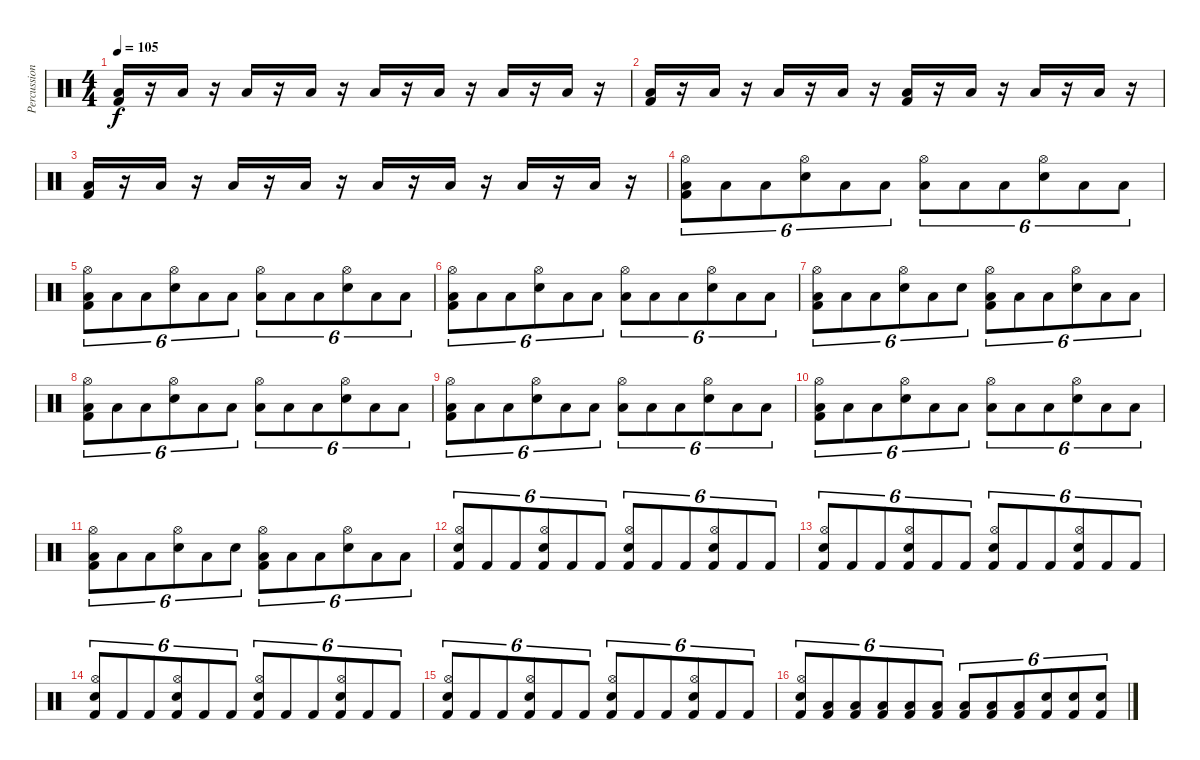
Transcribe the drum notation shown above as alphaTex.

\track ("Percussion" "Percussion") {instrument percussion}
\staff {score}
\articulation defaults
\ts (4 4)
\tempo 105
\clef neutral
\ks c
("Low Floor Tom (hit)" "Kick (hit) 2").16{dy f} r.16 "Low Floor Tom (hit)".16 r.16 "Low Floor Tom (hit)".16 r.16 "Low Floor Tom (hit)".16 r.16 "Low Floor Tom (hit)".16 r.16 "Low Floor Tom (hit)".16 r.16 "Low Floor Tom (hit)".16 r.16 "Low Floor Tom (hit)".16 r.16 |
("Low Floor Tom (hit)" "Kick (hit) 2").16 r.16 "Low Floor Tom (hit)".16 r.16 "Low Floor Tom (hit)".16 r.16 "Low Floor Tom (hit)".16 r.16 ("Low Floor Tom (hit)" "Kick (hit) 2").16 r.16 "Low Floor Tom (hit)".16 r.16 "Low Floor Tom (hit)".16 r.16 "Low Floor Tom (hit)".16 r.16 |
("Low Floor Tom (hit)" "Kick (hit) 2").16 r.16 "Low Floor Tom (hit)".16 r.16 "Low Floor Tom (hit)".16 r.16 "Low Floor Tom (hit)".16 r.16 "Low Floor Tom (hit)".16 r.16 "Low Floor Tom (hit)".16 r.16 "Low Floor Tom (hit)".16 r.16 "Low Floor Tom (hit)".16 r.16 |
("Hi-Hat (open)" "Low Floor Tom (hit)" "Kick (hit) 2").8{tu (6 4)} "Low Floor Tom (hit)".8{tu (6 4)} "Low Floor Tom (hit)".8{tu (6 4)} ("Hi-Hat (open)" "Electric Snare (hit)").8{tu (6 4)} "Low Floor Tom (hit)".8{tu (6 4)} "Low Floor Tom (hit)".8{tu (6 4)} ("Hi-Hat (open)" "Low Floor Tom (hit)").8{tu (6 4)} "Low Floor Tom (hit)".8{tu (6 4)} "Low Floor Tom (hit)".8{tu (6 4)} ("Hi-Hat (open)" "Electric Snare (hit)").8{tu (6 4)} "Low Floor Tom (hit)".8{tu (6 4)} "Low Floor Tom (hit)".8{tu (6 4)} |
("Hi-Hat (open)" "Low Floor Tom (hit)" "Kick (hit) 2").8{tu (6 4)} "Low Floor Tom (hit)".8{tu (6 4)} "Low Floor Tom (hit)".8{tu (6 4)} ("Hi-Hat (open)" "Electric Snare (hit)").8{tu (6 4)} "Low Floor Tom (hit)".8{tu (6 4)} "Low Floor Tom (hit)".8{tu (6 4)} ("Hi-Hat (open)" "Low Floor Tom (hit)").8{tu (6 4)} "Low Floor Tom (hit)".8{tu (6 4)} "Low Floor Tom (hit)".8{tu (6 4)} ("Hi-Hat (open)" "Electric Snare (hit)").8{tu (6 4)} "Low Floor Tom (hit)".8{tu (6 4)} "Low Floor Tom (hit)".8{tu (6 4)} |
("Hi-Hat (open)" "Low Floor Tom (hit)" "Kick (hit) 2").8{tu (6 4)} "Low Floor Tom (hit)".8{tu (6 4)} "Low Floor Tom (hit)".8{tu (6 4)} ("Hi-Hat (open)" "Electric Snare (hit)").8{tu (6 4)} "Low Floor Tom (hit)".8{tu (6 4)} "Low Floor Tom (hit)".8{tu (6 4)} ("Hi-Hat (open)" "Low Floor Tom (hit)").8{tu (6 4)} "Low Floor Tom (hit)".8{tu (6 4)} "Low Floor Tom (hit)".8{tu (6 4)} ("Hi-Hat (open)" "Electric Snare (hit)").8{tu (6 4)} "Low Floor Tom (hit)".8{tu (6 4)} "Low Floor Tom (hit)".8{tu (6 4)} |
("Hi-Hat (open)" "Low Floor Tom (hit)" "Kick (hit) 2").8{tu (6 4)} "Low Floor Tom (hit)".8{tu (6 4)} "Low Floor Tom (hit)".8{tu (6 4)} ("Hi-Hat (open)" "Electric Snare (hit)").8{tu (6 4)} "Low Floor Tom (hit)".8{tu (6 4)} "Electric Snare (hit)".8{tu (6 4)} ("Hi-Hat (open)" "Low Floor Tom (hit)" "Kick (hit) 2").8{tu (6 4)} "Low Floor Tom (hit)".8{tu (6 4)} "Low Floor Tom (hit)".8{tu (6 4)} ("Hi-Hat (open)" "Electric Snare (hit)").8{tu (6 4)} "Low Floor Tom (hit)".8{tu (6 4)} "Low Floor Tom (hit)".8{tu (6 4)} |
("Hi-Hat (open)" "Low Floor Tom (hit)" "Kick (hit) 2").8{tu (6 4)} "Low Floor Tom (hit)".8{tu (6 4)} "Low Floor Tom (hit)".8{tu (6 4)} ("Hi-Hat (open)" "Electric Snare (hit)").8{tu (6 4)} "Low Floor Tom (hit)".8{tu (6 4)} "Low Floor Tom (hit)".8{tu (6 4)} ("Hi-Hat (open)" "Low Floor Tom (hit)").8{tu (6 4)} "Low Floor Tom (hit)".8{tu (6 4)} "Low Floor Tom (hit)".8{tu (6 4)} ("Hi-Hat (open)" "Electric Snare (hit)").8{tu (6 4)} "Low Floor Tom (hit)".8{tu (6 4)} "Low Floor Tom (hit)".8{tu (6 4)} |
("Hi-Hat (open)" "Low Floor Tom (hit)" "Kick (hit) 2").8{tu (6 4)} "Low Floor Tom (hit)".8{tu (6 4)} "Low Floor Tom (hit)".8{tu (6 4)} ("Hi-Hat (open)" "Electric Snare (hit)").8{tu (6 4)} "Low Floor Tom (hit)".8{tu (6 4)} "Low Floor Tom (hit)".8{tu (6 4)} ("Hi-Hat (open)" "Low Floor Tom (hit)").8{tu (6 4)} "Low Floor Tom (hit)".8{tu (6 4)} "Low Floor Tom (hit)".8{tu (6 4)} ("Hi-Hat (open)" "Electric Snare (hit)").8{tu (6 4)} "Low Floor Tom (hit)".8{tu (6 4)} "Low Floor Tom (hit)".8{tu (6 4)} |
("Hi-Hat (open)" "Low Floor Tom (hit)" "Kick (hit) 2").8{tu (6 4)} "Low Floor Tom (hit)".8{tu (6 4)} "Low Floor Tom (hit)".8{tu (6 4)} ("Hi-Hat (open)" "Electric Snare (hit)").8{tu (6 4)} "Low Floor Tom (hit)".8{tu (6 4)} "Low Floor Tom (hit)".8{tu (6 4)} ("Hi-Hat (open)" "Low Floor Tom (hit)").8{tu (6 4)} "Low Floor Tom (hit)".8{tu (6 4)} "Low Floor Tom (hit)".8{tu (6 4)} ("Hi-Hat (open)" "Electric Snare (hit)").8{tu (6 4)} "Low Floor Tom (hit)".8{tu (6 4)} "Low Floor Tom (hit)".8{tu (6 4)} |
("Hi-Hat (open)" "Low Floor Tom (hit)" "Kick (hit) 2").8{tu (6 4)} "Low Floor Tom (hit)".8{tu (6 4)} "Low Floor Tom (hit)".8{tu (6 4)} ("Hi-Hat (open)" "Electric Snare (hit)").8{tu (6 4)} "Low Floor Tom (hit)".8{tu (6 4)} "Electric Snare (hit)".8{tu (6 4)} ("Hi-Hat (open)" "Low Floor Tom (hit)" "Kick (hit) 2").8{tu (6 4)} "Low Floor Tom (hit)".8{tu (6 4)} "Low Floor Tom (hit)".8{tu (6 4)} ("Hi-Hat (open)" "Electric Snare (hit)").8{tu (6 4)} "Low Floor Tom (hit)".8{tu (6 4)} "Low Floor Tom (hit)".8{tu (6 4)} |
("Hi-Hat (open)" "Electric Snare (hit)" "Kick (hit) 2").8{tu (6 4)} "Kick (hit) 2".8{tu (6 4)} "Kick (hit) 2".8{tu (6 4)} ("Hi-Hat (open)" "Electric Snare (hit)" "Kick (hit) 2").8{tu (6 4)} "Kick (hit) 2".8{tu (6 4)} "Kick (hit) 2".8{tu (6 4)} ("Hi-Hat (open)" "Electric Snare (hit)" "Kick (hit) 2").8{tu (6 4)} "Kick (hit) 2".8{tu (6 4)} "Kick (hit) 2".8{tu (6 4)} ("Hi-Hat (open)" "Electric Snare (hit)" "Kick (hit) 2").8{tu (6 4)} "Kick (hit) 2".8{tu (6 4)} "Kick (hit) 2".8{tu (6 4)} |
("Hi-Hat (open)" "Electric Snare (hit)" "Kick (hit) 2").8{tu (6 4)} "Kick (hit) 2".8{tu (6 4)} "Kick (hit) 2".8{tu (6 4)} ("Hi-Hat (open)" "Electric Snare (hit)" "Kick (hit) 2").8{tu (6 4)} "Kick (hit) 2".8{tu (6 4)} "Kick (hit) 2".8{tu (6 4)} ("Hi-Hat (open)" "Electric Snare (hit)" "Kick (hit) 2").8{tu (6 4)} "Kick (hit) 2".8{tu (6 4)} "Kick (hit) 2".8{tu (6 4)} ("Hi-Hat (open)" "Electric Snare (hit)" "Kick (hit) 2").8{tu (6 4)} "Kick (hit) 2".8{tu (6 4)} "Kick (hit) 2".8{tu (6 4)} |
("Hi-Hat (open)" "Electric Snare (hit)" "Kick (hit) 2").8{tu (6 4)} "Kick (hit) 2".8{tu (6 4)} "Kick (hit) 2".8{tu (6 4)} ("Hi-Hat (open)" "Electric Snare (hit)" "Kick (hit) 2").8{tu (6 4)} "Kick (hit) 2".8{tu (6 4)} "Kick (hit) 2".8{tu (6 4)} ("Hi-Hat (open)" "Electric Snare (hit)" "Kick (hit) 2").8{tu (6 4)} "Kick (hit) 2".8{tu (6 4)} "Kick (hit) 2".8{tu (6 4)} ("Hi-Hat (open)" "Electric Snare (hit)" "Kick (hit) 2").8{tu (6 4)} "Kick (hit) 2".8{tu (6 4)} "Kick (hit) 2".8{tu (6 4)} |
("Hi-Hat (open)" "Electric Snare (hit)" "Kick (hit) 2").8{tu (6 4)} "Kick (hit) 2".8{tu (6 4)} "Kick (hit) 2".8{tu (6 4)} ("Hi-Hat (open)" "Electric Snare (hit)" "Kick (hit) 2").8{tu (6 4)} "Kick (hit) 2".8{tu (6 4)} "Kick (hit) 2".8{tu (6 4)} ("Hi-Hat (open)" "Electric Snare (hit)" "Kick (hit) 2").8{tu (6 4)} "Kick (hit) 2".8{tu (6 4)} "Kick (hit) 2".8{tu (6 4)} ("Hi-Hat (open)" "Electric Snare (hit)" "Kick (hit) 2").8{tu (6 4)} "Kick (hit) 2".8{tu (6 4)} "Kick (hit) 2".8{tu (6 4)} |
("Hi-Hat (open)" "Electric Snare (hit)" "Kick (hit) 2").8{tu (6 4)} ("Low Floor Tom (hit)" "Kick (hit) 2").8{tu (6 4)} ("Low Floor Tom (hit)" "Kick (hit) 2").8{tu (6 4)} ("Low Floor Tom (hit)" "Kick (hit) 2").8{tu (6 4)} ("Low Floor Tom (hit)" "Kick (hit) 2").8{tu (6 4)} ("Low Floor Tom (hit)" "Kick (hit) 2").8{tu (6 4)} ("Low Floor Tom (hit)" "Kick (hit) 2").8{tu (6 4)} ("Low Floor Tom (hit)" "Kick (hit) 2").8{tu (6 4)} ("Low Floor Tom (hit)" "Kick (hit) 2").8{tu (6 4)} ("Electric Snare (hit)" "Kick (hit) 2").8{tu (6 4)} ("Electric Snare (hit)" "Kick (hit) 2").8{tu (6 4)} ("Electric Snare (hit)" "Kick (hit) 2").8{tu (6 4)}
